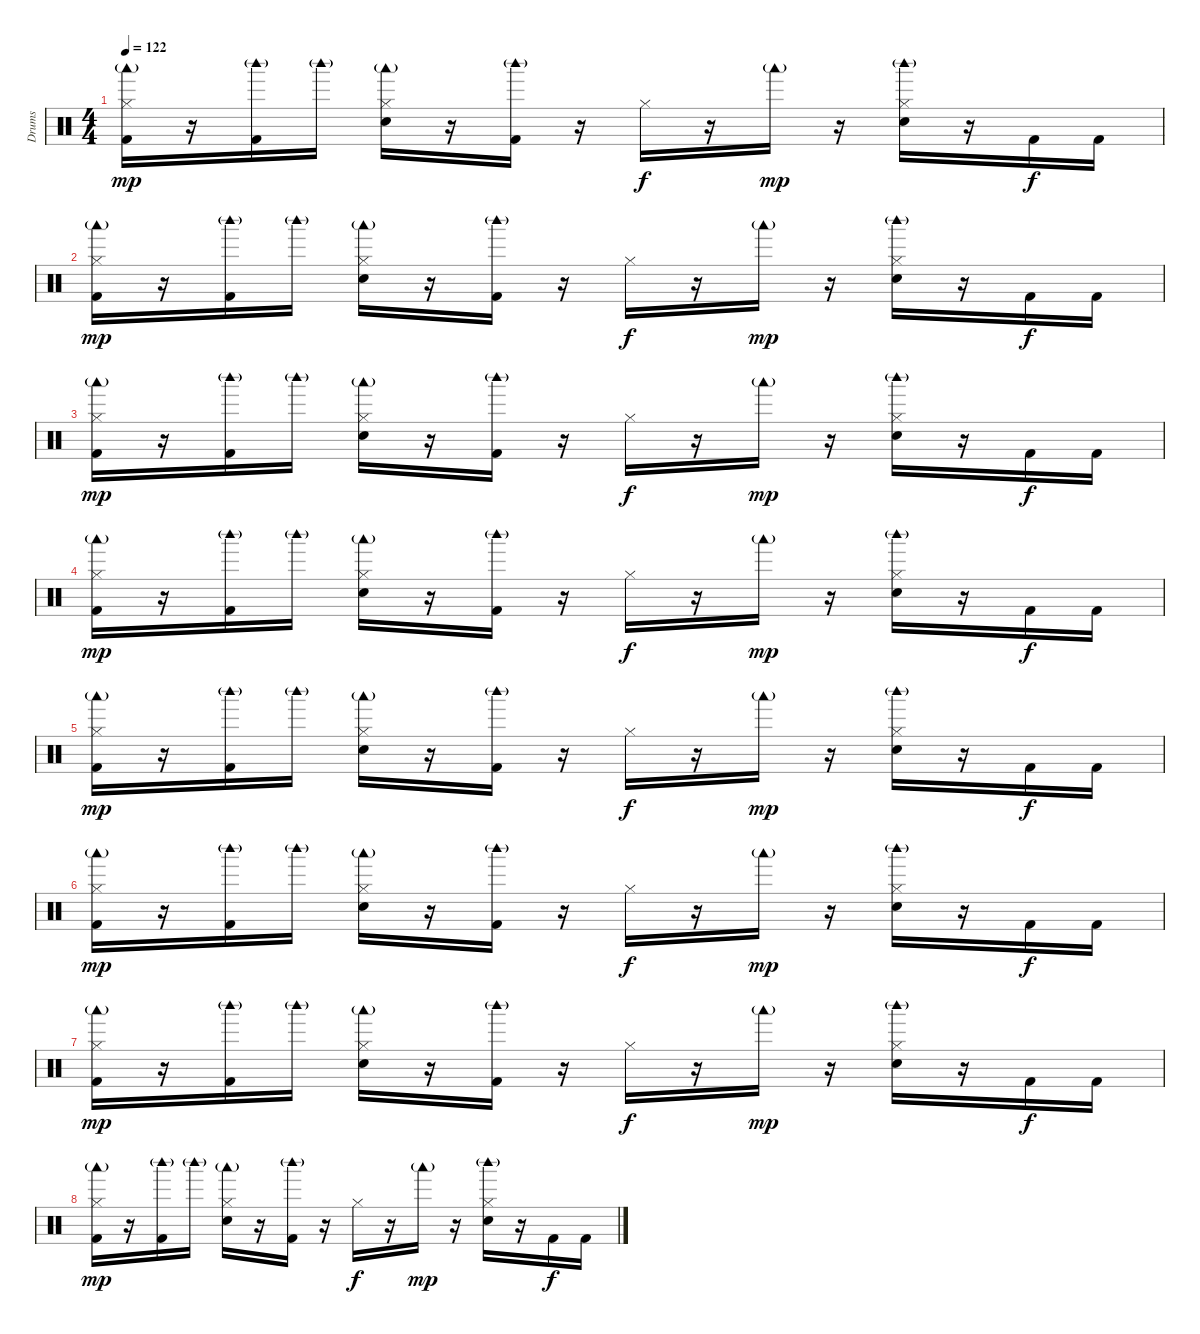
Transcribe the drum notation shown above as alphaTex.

\track ("Drums" "Drums") {instrument percussion}
\staff {score}
\articulation defaults
\ts (4 4)
\tempo 122
\clef neutral
\ks c
("Hi-Hat (closed)" "Woodblock low (hit)"{g} "Kick (hit) 2").16{dy mp} r.16 ("Woodblock high (hit)"{g} "Kick (hit) 2").16 "Woodblock high (hit)"{g}.16 ("Hi-Hat (closed)" "Hand Clap (hit)" "Woodblock low (hit)"{g}).16 r.16 ("Woodblock high (hit)"{g} "Kick (hit) 2").16 r.16 "Hi-Hat (closed)".16{dy f} r.16 "Woodblock low (hit)"{g}.16{dy mp} r.16 ("Hi-Hat (closed)" "Hand Clap (hit)" "Woodblock high (hit)"{g}).16 r.16 "Kick (hit) 2".16{dy f} "Kick (hit) 2".16 |
("Hi-Hat (closed)" "Woodblock low (hit)"{g} "Kick (hit) 2").16{dy mp} r.16 ("Woodblock high (hit)"{g} "Kick (hit) 2").16 "Woodblock high (hit)"{g}.16 ("Hi-Hat (closed)" "Hand Clap (hit)" "Woodblock low (hit)"{g}).16 r.16 ("Woodblock high (hit)"{g} "Kick (hit) 2").16 r.16 "Hi-Hat (closed)".16{dy f} r.16 "Woodblock low (hit)"{g}.16{dy mp} r.16 ("Hi-Hat (closed)" "Hand Clap (hit)" "Woodblock high (hit)"{g}).16 r.16 "Kick (hit) 2".16{dy f} "Kick (hit) 2".16 |
("Hi-Hat (closed)" "Woodblock low (hit)"{g} "Kick (hit) 2").16{dy mp} r.16 ("Woodblock high (hit)"{g} "Kick (hit) 2").16 "Woodblock high (hit)"{g}.16 ("Hi-Hat (closed)" "Hand Clap (hit)" "Woodblock low (hit)"{g}).16 r.16 ("Woodblock high (hit)"{g} "Kick (hit) 2").16 r.16 "Hi-Hat (closed)".16{dy f} r.16 "Woodblock low (hit)"{g}.16{dy mp} r.16 ("Hi-Hat (closed)" "Hand Clap (hit)" "Woodblock high (hit)"{g}).16 r.16 "Kick (hit) 2".16{dy f} "Kick (hit) 2".16 |
("Hi-Hat (closed)" "Woodblock low (hit)"{g} "Kick (hit) 2").16{dy mp} r.16 ("Woodblock high (hit)"{g} "Kick (hit) 2").16 "Woodblock high (hit)"{g}.16 ("Hi-Hat (closed)" "Hand Clap (hit)" "Woodblock low (hit)"{g}).16 r.16 ("Woodblock high (hit)"{g} "Kick (hit) 2").16 r.16 "Hi-Hat (closed)".16{dy f} r.16 "Woodblock low (hit)"{g}.16{dy mp} r.16 ("Hi-Hat (closed)" "Hand Clap (hit)" "Woodblock high (hit)"{g}).16 r.16 "Kick (hit) 2".16{dy f} "Kick (hit) 2".16 |
("Hi-Hat (closed)" "Woodblock low (hit)"{g} "Kick (hit) 2").16{dy mp} r.16 ("Woodblock high (hit)"{g} "Kick (hit) 2").16 "Woodblock high (hit)"{g}.16 ("Hi-Hat (closed)" "Hand Clap (hit)" "Woodblock low (hit)"{g}).16 r.16 ("Woodblock high (hit)"{g} "Kick (hit) 2").16 r.16 "Hi-Hat (closed)".16{dy f} r.16 "Woodblock low (hit)"{g}.16{dy mp} r.16 ("Hi-Hat (closed)" "Hand Clap (hit)" "Woodblock high (hit)"{g}).16 r.16 "Kick (hit) 2".16{dy f} "Kick (hit) 2".16 |
("Hi-Hat (closed)" "Woodblock low (hit)"{g} "Kick (hit) 2").16{dy mp} r.16 ("Woodblock high (hit)"{g} "Kick (hit) 2").16 "Woodblock high (hit)"{g}.16 ("Hi-Hat (closed)" "Hand Clap (hit)" "Woodblock low (hit)"{g}).16 r.16 ("Woodblock high (hit)"{g} "Kick (hit) 2").16 r.16 "Hi-Hat (closed)".16{dy f} r.16 "Woodblock low (hit)"{g}.16{dy mp} r.16 ("Hi-Hat (closed)" "Hand Clap (hit)" "Woodblock high (hit)"{g}).16 r.16 "Kick (hit) 2".16{dy f} "Kick (hit) 2".16 |
("Hi-Hat (closed)" "Woodblock low (hit)"{g} "Kick (hit) 2").16{dy mp} r.16 ("Woodblock high (hit)"{g} "Kick (hit) 2").16 "Woodblock high (hit)"{g}.16 ("Hi-Hat (closed)" "Hand Clap (hit)" "Woodblock low (hit)"{g}).16 r.16 ("Woodblock high (hit)"{g} "Kick (hit) 2").16 r.16 "Hi-Hat (closed)".16{dy f} r.16 "Woodblock low (hit)"{g}.16{dy mp} r.16 ("Hi-Hat (closed)" "Hand Clap (hit)" "Woodblock high (hit)"{g}).16 r.16 "Kick (hit) 2".16{dy f} "Kick (hit) 2".16 |
("Hi-Hat (closed)" "Woodblock low (hit)"{g} "Kick (hit) 2").16{dy mp} r.16 ("Woodblock high (hit)"{g} "Kick (hit) 2").16 "Woodblock high (hit)"{g}.16 ("Hi-Hat (closed)" "Hand Clap (hit)" "Woodblock low (hit)"{g}).16 r.16 ("Woodblock high (hit)"{g} "Kick (hit) 2").16 r.16 "Hi-Hat (closed)".16{dy f} r.16 "Woodblock low (hit)"{g}.16{dy mp} r.16 ("Hi-Hat (closed)" "Hand Clap (hit)" "Woodblock high (hit)"{g}).16 r.16 "Kick (hit) 2".16{dy f} "Kick (hit) 2".16
